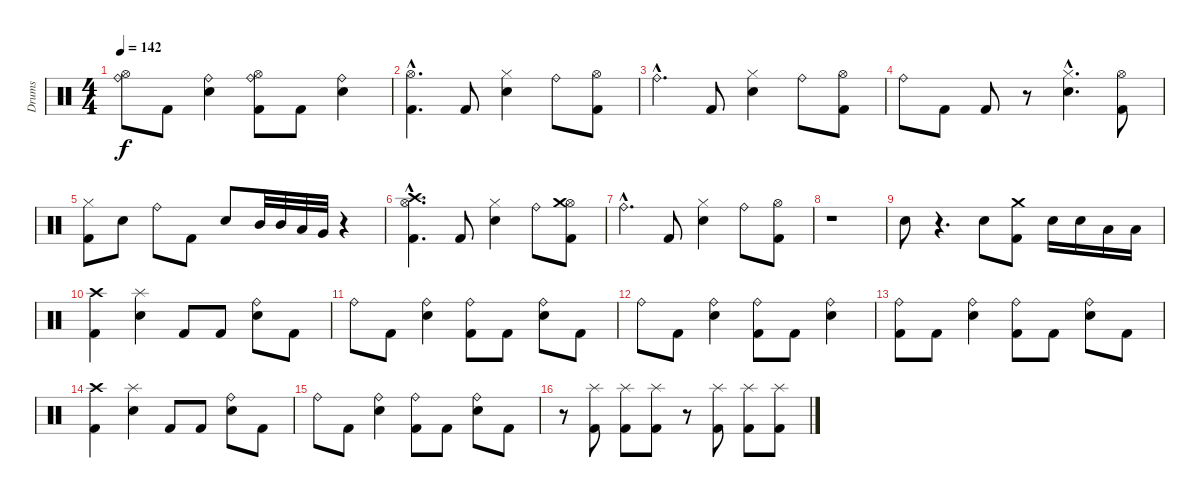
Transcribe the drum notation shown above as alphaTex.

\track ("Drums" "Drums") {instrument percussion}
\staff {score}
\articulation defaults
\ts (4 4)
\tempo 142
\clef neutral
\ks c
("Hi-Hat (open)" "Ride (bell)").8{dy f} "Kick (hit) 2".8 ("Snare (hit) 2" "Ride (bell)").4 ("Kick (hit) 2" "Hi-Hat (open)" "Ride (bell)").8 "Kick (hit) 2".8 ("Snare (hit) 2" "Ride (bell)").4 |
("Kick (hit) 2"{hac} "Hi-Hat (open)"{hac}).4{d} "Kick (hit) 2".8 ("Snare (hit) 2" "Hi-Hat (closed)").4 "Ride (bell)".8 ("Kick (hit) 2" "Hi-Hat (open)").8 |
"Ride (bell)"{hac}.4{d} "Kick (hit) 2".8 ("Snare (hit) 2" "Hi-Hat (closed)").4 "Ride (bell)".8 ("Kick (hit) 2" "Hi-Hat (open)").8 |
"Ride (bell)".8 "Kick (hit) 2".8 "Kick (hit) 2".8 r.8 ("Snare (hit) 2"{hac} "Hi-Hat (closed)"{hac}).4{d} ("Kick (hit) 2" "Hi-Hat (open)").8 |
("Kick (hit) 2" "Hi-Hat (closed)").8 "Snare (hit) 2".8 "Ride (bell)".8 "Kick (hit) 2".8 "Snare (hit) 2".8 "Mid Tom (hit)".32 "Mid Tom (hit)".32 "Low Tom (hit)".32 "Very Low Tom (hit)".32 r.4 |
("Kick (hit) 2"{hac} "Hi-Hat (open)"{hac} "Crash high (hit)"{hac}).4{d} "Kick (hit) 2".8 ("Snare (hit) 2" "Hi-Hat (closed)").4 "Ride (bell)".8 ("Kick (hit) 2" "Hi-Hat (open)" "Crash medium (hit)").8 |
"Ride (bell)"{hac}.4{d} "Kick (hit) 2".8 ("Snare (hit) 2" "Hi-Hat (closed)").4 "Ride (bell)".8 ("Kick (hit) 2" "Hi-Hat (open)").8 |
r.1 |
"Snare (hit) 2".8 r.4{d} "Snare (hit) 2".8 ("Kick (hit) 2" "Crash medium (hit)").8 "Snare (hit) 2".16 "Snare (hit) 2".16 "Low Tom (hit)".16 "Low Tom (hit)".16 |
("Kick (hit) 2" "Crash high (hit)").4 ("Snare (hit) 2" "Splash (hit)").4 "Kick (hit) 2".8 "Kick (hit) 2".8 ("Snare (hit) 2" "Ride (bell)").8 "Kick (hit) 2".8 |
"Ride (bell)".8 "Kick (hit) 2".8 ("Snare (hit) 2" "Ride (bell)").4 ("Kick (hit) 2" "Ride (bell)").8 "Kick (hit) 2".8 ("Snare (hit) 2" "Ride (bell)").8 "Kick (hit) 2".8 |
"Ride (bell)".8 "Kick (hit) 2".8 ("Snare (hit) 2" "Ride (bell)").4 ("Kick (hit) 2" "Ride (bell)").8 "Kick (hit) 2".8 ("Snare (hit) 2" "Ride (bell)").4 |
("Kick (hit) 2" "Ride (bell)").8 "Kick (hit) 2".8 ("Snare (hit) 2" "Ride (bell)").4 ("Kick (hit) 2" "Ride (bell)").8 "Kick (hit) 2".8 ("Snare (hit) 2" "Ride (bell)").8 "Kick (hit) 2".8 |
("Kick (hit) 2" "Crash high (hit)").4 ("Snare (hit) 2" "Splash (hit)").4 "Kick (hit) 2".8 "Kick (hit) 2".8 ("Snare (hit) 2" "Ride (bell)").8 "Kick (hit) 2".8 |
"Ride (bell)".8 "Kick (hit) 2".8 ("Snare (hit) 2" "Ride (bell)").4 ("Kick (hit) 2" "Ride (bell)").8 "Kick (hit) 2".8 ("Snare (hit) 2" "Ride (bell)").8 "Kick (hit) 2".8 |
r.8 ("Kick (hit) 2" "Splash (hit)").8 ("Kick (hit) 2" "Splash (hit)").8 ("Kick (hit) 2" "Splash (hit)").8 r.8 ("Kick (hit) 2" "Splash (hit)").8 ("Kick (hit) 2" "Splash (hit)").8 ("Kick (hit) 2" "Splash (hit)").8
